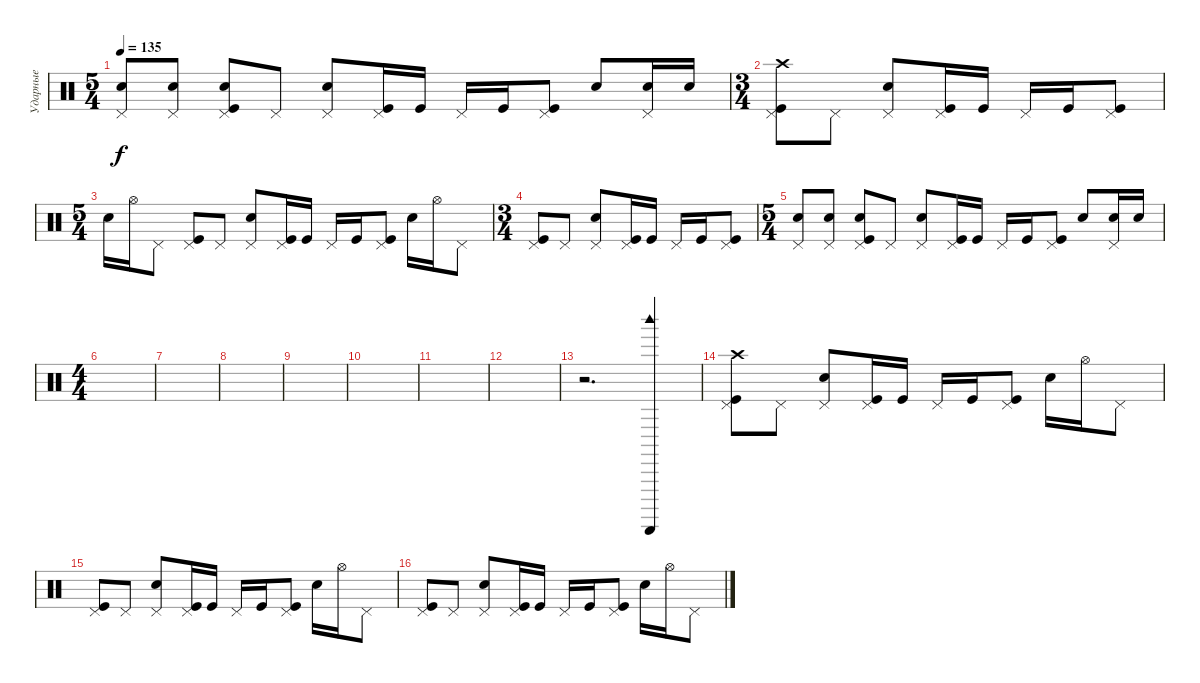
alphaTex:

\track ("Ударные" "Ударные") {instrument percussion}
\staff {score}
\articulation defaults
\ts (5 4)
\tempo 135
\clef neutral
\ks c
("Pedal Hi-Hat (hit)" "Electric Snare (hit)").8{dy f} ("Pedal Hi-Hat (hit)" "Electric Snare (hit)").8 ("Kick (hit)" "Pedal Hi-Hat (hit)" "Electric Snare (hit)").8 "Pedal Hi-Hat (hit)".8 ("Pedal Hi-Hat (hit)" "Electric Snare (hit)").8 ("Kick (hit)" "Pedal Hi-Hat (hit)").16 "Kick (hit)".16 "Pedal Hi-Hat (hit)".16 "Kick (hit)".16 ("Kick (hit)" "Pedal Hi-Hat (hit)").8 "Electric Snare (hit)".8 ("Pedal Hi-Hat (hit)" "Electric Snare (hit)").16 "Electric Snare (hit)".16 |
\ts (3 4)
("Kick (hit)" "Pedal Hi-Hat (hit)" "Crash high (hit)").8 "Pedal Hi-Hat (hit)".8 ("Pedal Hi-Hat (hit)" "Electric Snare (hit)").8 ("Kick (hit)" "Pedal Hi-Hat (hit)").16 "Kick (hit)".16 "Pedal Hi-Hat (hit)".16 "Kick (hit)".16 ("Kick (hit)" "Pedal Hi-Hat (hit)").8 |
\ts (5 4)
"Electric Snare (hit)".16 "Hi-Hat (open)".16 "Pedal Hi-Hat (hit)".8 ("Kick (hit)" "Pedal Hi-Hat (hit)").8 "Pedal Hi-Hat (hit)".8 ("Pedal Hi-Hat (hit)" "Electric Snare (hit)").8 ("Kick (hit)" "Pedal Hi-Hat (hit)").16 "Kick (hit)".16 "Pedal Hi-Hat (hit)".16 "Kick (hit)".16 ("Kick (hit)" "Pedal Hi-Hat (hit)").8 "Electric Snare (hit)".16 "Hi-Hat (open)".16 "Pedal Hi-Hat (hit)".8 |
\ts (3 4)
("Kick (hit)" "Pedal Hi-Hat (hit)").8 "Pedal Hi-Hat (hit)".8 ("Pedal Hi-Hat (hit)" "Electric Snare (hit)").8 ("Kick (hit)" "Pedal Hi-Hat (hit)").16 "Kick (hit)".16 "Pedal Hi-Hat (hit)".16 "Kick (hit)".16 ("Kick (hit)" "Pedal Hi-Hat (hit)").8 |
\ts (5 4)
("Pedal Hi-Hat (hit)" "Electric Snare (hit)").8 ("Pedal Hi-Hat (hit)" "Electric Snare (hit)").8 ("Kick (hit)" "Pedal Hi-Hat (hit)" "Electric Snare (hit)").8 "Pedal Hi-Hat (hit)".8 ("Pedal Hi-Hat (hit)" "Electric Snare (hit)").8 ("Kick (hit)" "Pedal Hi-Hat (hit)").16 "Kick (hit)".16 "Pedal Hi-Hat (hit)".16 "Kick (hit)".16 ("Kick (hit)" "Pedal Hi-Hat (hit)").8 "Electric Snare (hit)".8 ("Pedal Hi-Hat (hit)" "Electric Snare (hit)").16 "Electric Snare (hit)".16 |
\ts (4 4)
|
|
|
|
|
|
|
r.2{d} ("Woodblock high (hit)" "Guiro (scrap-return)").4 |
("Kick (hit)" "Pedal Hi-Hat (hit)" "Crash high (hit)").8 "Pedal Hi-Hat (hit)".8 ("Pedal Hi-Hat (hit)" "Electric Snare (hit)").8 ("Kick (hit)" "Pedal Hi-Hat (hit)").16 "Kick (hit)".16 "Pedal Hi-Hat (hit)".16 "Kick (hit)".16 ("Kick (hit)" "Pedal Hi-Hat (hit)").8 "Electric Snare (hit)".16 "Hi-Hat (open)".16 "Pedal Hi-Hat (hit)".8 |
("Kick (hit)" "Pedal Hi-Hat (hit)").8 "Pedal Hi-Hat (hit)".8 ("Pedal Hi-Hat (hit)" "Electric Snare (hit)").8 ("Kick (hit)" "Pedal Hi-Hat (hit)").16 "Kick (hit)".16 "Pedal Hi-Hat (hit)".16 "Kick (hit)".16 ("Kick (hit)" "Pedal Hi-Hat (hit)").8 "Electric Snare (hit)".16 "Hi-Hat (open)".16 "Pedal Hi-Hat (hit)".8 |
("Kick (hit)" "Pedal Hi-Hat (hit)").8 "Pedal Hi-Hat (hit)".8 ("Pedal Hi-Hat (hit)" "Electric Snare (hit)").8 ("Kick (hit)" "Pedal Hi-Hat (hit)").16 "Kick (hit)".16 "Pedal Hi-Hat (hit)".16 "Kick (hit)".16 ("Kick (hit)" "Pedal Hi-Hat (hit)").8 "Electric Snare (hit)".16 "Hi-Hat (open)".16 "Pedal Hi-Hat (hit)".8
